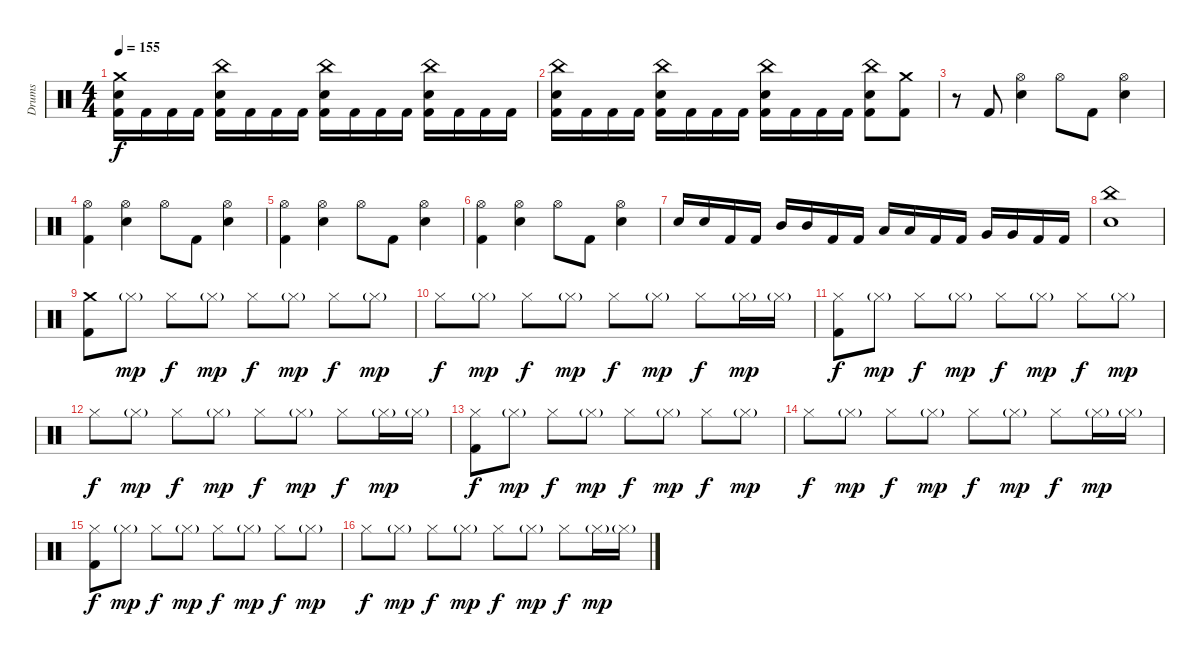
\track ("Drums" "Drums") {instrument percussion}
\staff {score}
\articulation defaults
\ts (4 4)
\tempo 155
\clef neutral
\ks c
("Crash medium (hit)" "Snare (hit) 2" "Kick (hit) 2").16{dy f} "Kick (hit) 2".16 "Kick (hit) 2".16 "Kick (hit) 2".16 ("China (hit)" "Snare (hit) 2" "Kick (hit) 2").16 "Kick (hit) 2".16 "Kick (hit) 2".16 "Kick (hit) 2".16 ("China (hit)" "Snare (hit) 2" "Kick (hit) 2").16 "Kick (hit) 2".16 "Kick (hit) 2".16 "Kick (hit) 2".16 ("China (hit)" "Snare (hit) 2" "Kick (hit) 2").16 "Kick (hit) 2".16 "Kick (hit) 2".16 "Kick (hit) 2".16 |
("China (hit)" "Snare (hit) 2" "Kick (hit) 2").16 "Kick (hit) 2".16 "Kick (hit) 2".16 "Kick (hit) 2".16 ("China (hit)" "Snare (hit) 2" "Kick (hit) 2").16 "Kick (hit) 2".16 "Kick (hit) 2".16 "Kick (hit) 2".16 ("China (hit)" "Snare (hit) 2" "Kick (hit) 2").16 "Kick (hit) 2".16 "Kick (hit) 2".16 "Kick (hit) 2".16 ("China (hit)" "Snare (hit) 2" "Kick (hit) 2").8 ("Crash medium (hit)" "Kick (hit) 2").8 |
r.8 "Kick (hit) 2".8 ("Hi-Hat (open)" "Snare (hit) 2").4 "Hi-Hat (open)".8 "Kick (hit) 2".8 ("Hi-Hat (open)" "Snare (hit) 2").4 |
("Hi-Hat (open)" "Kick (hit) 2").4 ("Hi-Hat (open)" "Snare (hit) 2").4 "Hi-Hat (open)".8 "Kick (hit) 2".8 ("Hi-Hat (open)" "Snare (hit) 2").4 |
("Hi-Hat (open)" "Kick (hit) 2").4 ("Hi-Hat (open)" "Snare (hit) 2").4 "Hi-Hat (open)".8 "Kick (hit) 2".8 ("Hi-Hat (open)" "Snare (hit) 2").4 |
("Hi-Hat (open)" "Kick (hit) 2").4 ("Hi-Hat (open)" "Snare (hit) 2").4 "Hi-Hat (open)".8 "Kick (hit) 2".8 ("Hi-Hat (open)" "Snare (hit) 2").4 |
"Snare (hit) 2".16 "Snare (hit) 2".16 "Kick (hit) 2".16 "Kick (hit) 2".16 "Mid Tom (hit)".16 "Mid Tom (hit)".16 "Kick (hit) 2".16 "Kick (hit) 2".16 "Low Tom (hit)".16 "Low Tom (hit)".16 "Kick (hit) 2".16 "Kick (hit) 2".16 "Very Low Tom (hit)".16 "Very Low Tom (hit)".16 "Kick (hit) 2".16 "Kick (hit) 2".16 |
("China (hit)" "Snare (hit) 2").1 |
("Crash medium (hit)" "Kick (hit) 2").8 "Hi-Hat (closed)"{g}.8{dy mp} "Hi-Hat (closed)".8{dy f} "Hi-Hat (closed)"{g}.8{dy mp} "Hi-Hat (closed)".8{dy f} "Hi-Hat (closed)"{g}.8{dy mp} "Hi-Hat (closed)".8{dy f} "Hi-Hat (closed)"{g}.8{dy mp} |
"Hi-Hat (closed)".8{dy f} "Hi-Hat (closed)"{g}.8{dy mp} "Hi-Hat (closed)".8{dy f} "Hi-Hat (closed)"{g}.8{dy mp} "Hi-Hat (closed)".8{dy f} "Hi-Hat (closed)"{g}.8{dy mp} "Hi-Hat (closed)".8{dy f} "Hi-Hat (closed)"{g}.16{dy mp} "Hi-Hat (closed)"{g}.16 |
("Hi-Hat (closed)" "Kick (hit) 2").8{dy f} "Hi-Hat (closed)"{g}.8{dy mp} "Hi-Hat (closed)".8{dy f} "Hi-Hat (closed)"{g}.8{dy mp} "Hi-Hat (closed)".8{dy f} "Hi-Hat (closed)"{g}.8{dy mp} "Hi-Hat (closed)".8{dy f} "Hi-Hat (closed)"{g}.8{dy mp} |
"Hi-Hat (closed)".8{dy f} "Hi-Hat (closed)"{g}.8{dy mp} "Hi-Hat (closed)".8{dy f} "Hi-Hat (closed)"{g}.8{dy mp} "Hi-Hat (closed)".8{dy f} "Hi-Hat (closed)"{g}.8{dy mp} "Hi-Hat (closed)".8{dy f} "Hi-Hat (closed)"{g}.16{dy mp} "Hi-Hat (closed)"{g}.16 |
("Hi-Hat (closed)" "Kick (hit) 2").8{dy f} "Hi-Hat (closed)"{g}.8{dy mp} "Hi-Hat (closed)".8{dy f} "Hi-Hat (closed)"{g}.8{dy mp} "Hi-Hat (closed)".8{dy f} "Hi-Hat (closed)"{g}.8{dy mp} "Hi-Hat (closed)".8{dy f} "Hi-Hat (closed)"{g}.8{dy mp} |
"Hi-Hat (closed)".8{dy f} "Hi-Hat (closed)"{g}.8{dy mp} "Hi-Hat (closed)".8{dy f} "Hi-Hat (closed)"{g}.8{dy mp} "Hi-Hat (closed)".8{dy f} "Hi-Hat (closed)"{g}.8{dy mp} "Hi-Hat (closed)".8{dy f} "Hi-Hat (closed)"{g}.16{dy mp} "Hi-Hat (closed)"{g}.16 |
("Hi-Hat (closed)" "Kick (hit) 2").8{dy f} "Hi-Hat (closed)"{g}.8{dy mp} "Hi-Hat (closed)".8{dy f} "Hi-Hat (closed)"{g}.8{dy mp} "Hi-Hat (closed)".8{dy f} "Hi-Hat (closed)"{g}.8{dy mp} "Hi-Hat (closed)".8{dy f} "Hi-Hat (closed)"{g}.8{dy mp} |
"Hi-Hat (closed)".8{dy f} "Hi-Hat (closed)"{g}.8{dy mp} "Hi-Hat (closed)".8{dy f} "Hi-Hat (closed)"{g}.8{dy mp} "Hi-Hat (closed)".8{dy f} "Hi-Hat (closed)"{g}.8{dy mp} "Hi-Hat (closed)".8{dy f} "Hi-Hat (closed)"{g}.16{dy mp} "Hi-Hat (closed)"{g}.16
